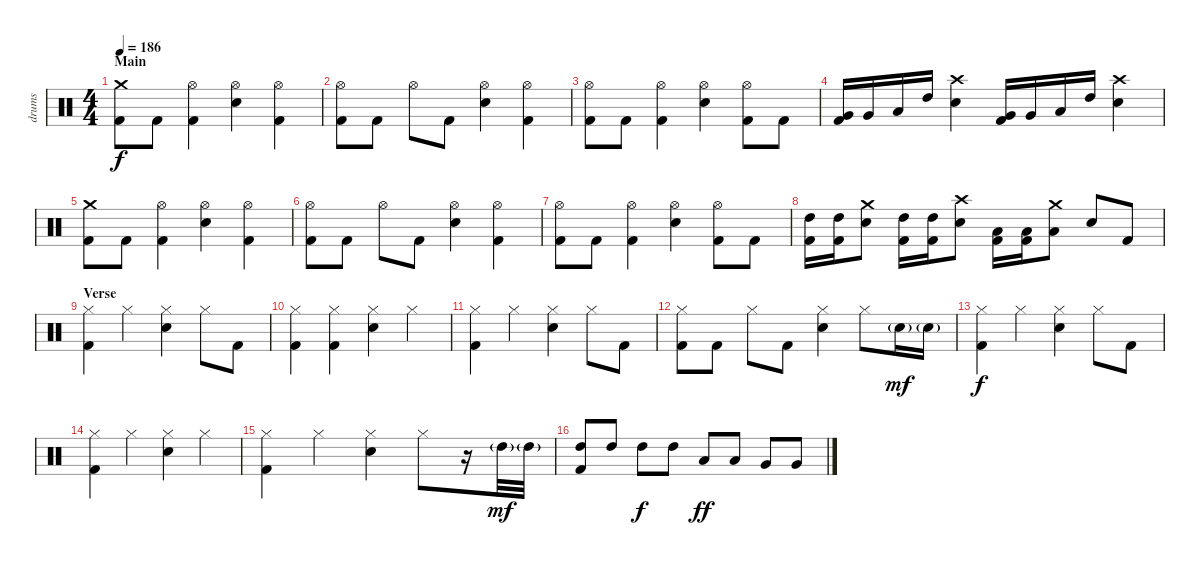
\track ("drums" "drums") {instrument percussion}
\staff {score}
\articulation defaults
\ts (4 4)
\section ("" "Main")
\tempo 186
\clef neutral
\ks c
("Crash medium (hit)" "Kick (hit) 2").8{dy f} "Kick (hit) 2".8 ("Hi-Hat (open)" "Kick (hit) 2").4 ("Hi-Hat (open)" "Electric Snare (hit)").4 ("Hi-Hat (open)" "Kick (hit) 2").4 |
("Hi-Hat (open)" "Kick (hit) 2").8 "Kick (hit) 2".8 "Hi-Hat (open)".8 "Kick (hit) 2".8 ("Hi-Hat (open)" "Electric Snare (hit)").4 ("Hi-Hat (open)" "Kick (hit) 2").4 |
("Hi-Hat (open)" "Kick (hit) 2").8 "Kick (hit) 2".8 ("Hi-Hat (open)" "Kick (hit) 2").4 ("Hi-Hat (open)" "Electric Snare (hit)").4 ("Hi-Hat (open)" "Kick (hit) 2").8 "Kick (hit) 2".8 |
("Very Low Tom (hit)" "Kick (hit) 2").16 "Very Low Tom (hit)".16 "Low Tom (hit)".16 "High Tom (hit)".16 ("Crash high (hit)" "Electric Snare (hit)").4 ("Very Low Tom (hit)" "Kick (hit) 2").16 "Very Low Tom (hit)".16 "Low Tom (hit)".16 "High Tom (hit)".16 ("Crash high (hit)" "Electric Snare (hit)").4 |
("Crash medium (hit)" "Kick (hit) 2").8 "Kick (hit) 2".8 ("Hi-Hat (open)" "Kick (hit) 2").4 ("Hi-Hat (open)" "Electric Snare (hit)").4 ("Hi-Hat (open)" "Kick (hit) 2").4 |
("Hi-Hat (open)" "Kick (hit) 2").8 "Kick (hit) 2".8 "Hi-Hat (open)".8 "Kick (hit) 2".8 ("Hi-Hat (open)" "Electric Snare (hit)").4 ("Hi-Hat (open)" "Kick (hit) 2").4 |
("Hi-Hat (open)" "Kick (hit) 2").8 "Kick (hit) 2".8 ("Hi-Hat (open)" "Kick (hit) 2").4 ("Hi-Hat (open)" "Electric Snare (hit)").4 ("Hi-Hat (open)" "Kick (hit) 2").8 "Kick (hit) 2".8 |
("High Tom (hit)" "Kick (hit) 2").16 ("High Tom (hit)" "Kick (hit) 2").16 ("Crash medium (hit)" "Electric Snare (hit)").8 ("High Tom (hit)" "Kick (hit) 2").16 ("High Tom (hit)" "Kick (hit) 2").16 ("Crash high (hit)" "Electric Snare (hit)").8 ("Low Tom (hit)" "Kick (hit) 2").16 ("Low Tom (hit)" "Kick (hit) 2").16 ("Crash medium (hit)" "Low Tom (hit)").8 "Electric Snare (hit)".8 "Kick (hit) 2".8 |
\section ("" "Verse")
("Hi-Hat (closed)" "Kick (hit) 2").4 "Hi-Hat (closed)".4 ("Hi-Hat (closed)" "Electric Snare (hit)").4 "Hi-Hat (closed)".8 "Kick (hit) 2".8 |
("Hi-Hat (closed)" "Kick (hit) 2").4 ("Hi-Hat (closed)" "Kick (hit) 2").4 ("Hi-Hat (closed)" "Electric Snare (hit)").4 "Hi-Hat (closed)".4 |
("Hi-Hat (closed)" "Kick (hit) 2").4 "Hi-Hat (closed)".4 ("Hi-Hat (closed)" "Electric Snare (hit)").4 "Hi-Hat (closed)".8 "Kick (hit) 2".8 |
("Hi-Hat (closed)" "Kick (hit) 2").8 "Kick (hit) 2".8 "Hi-Hat (closed)".8 "Kick (hit) 2".8 ("Hi-Hat (closed)" "Electric Snare (hit)").4 "Hi-Hat (closed)".8 "Electric Snare (hit)"{g}.16{dy mf} "Electric Snare (hit)"{g}.16 |
("Hi-Hat (closed)" "Kick (hit) 2").4{dy f} "Hi-Hat (closed)".4 ("Hi-Hat (closed)" "Electric Snare (hit)").4 "Hi-Hat (closed)".8 "Kick (hit) 2".8 |
("Hi-Hat (closed)" "Kick (hit) 2").4 "Hi-Hat (closed)".4 ("Hi-Hat (closed)" "Electric Snare (hit)").4 "Hi-Hat (closed)".4 |
("Hi-Hat (closed)" "Kick (hit) 2").4 "Hi-Hat (closed)".4 ("Hi-Hat (closed)" "Electric Snare (hit)").4 "Hi-Hat (closed)".8 r.16 "High Tom (hit)"{g}.32{dy mf} "High Tom (hit)"{g}.32 |
("High Tom (hit)" "Kick (hit) 2").8 "High Tom (hit)".8 "High Tom (hit)".8{dy f} "High Tom (hit)".8 "Low Tom (hit)".8{dy ff} "Low Tom (hit)".8 "Very Low Tom (hit)".8 "Very Low Tom (hit)".8
